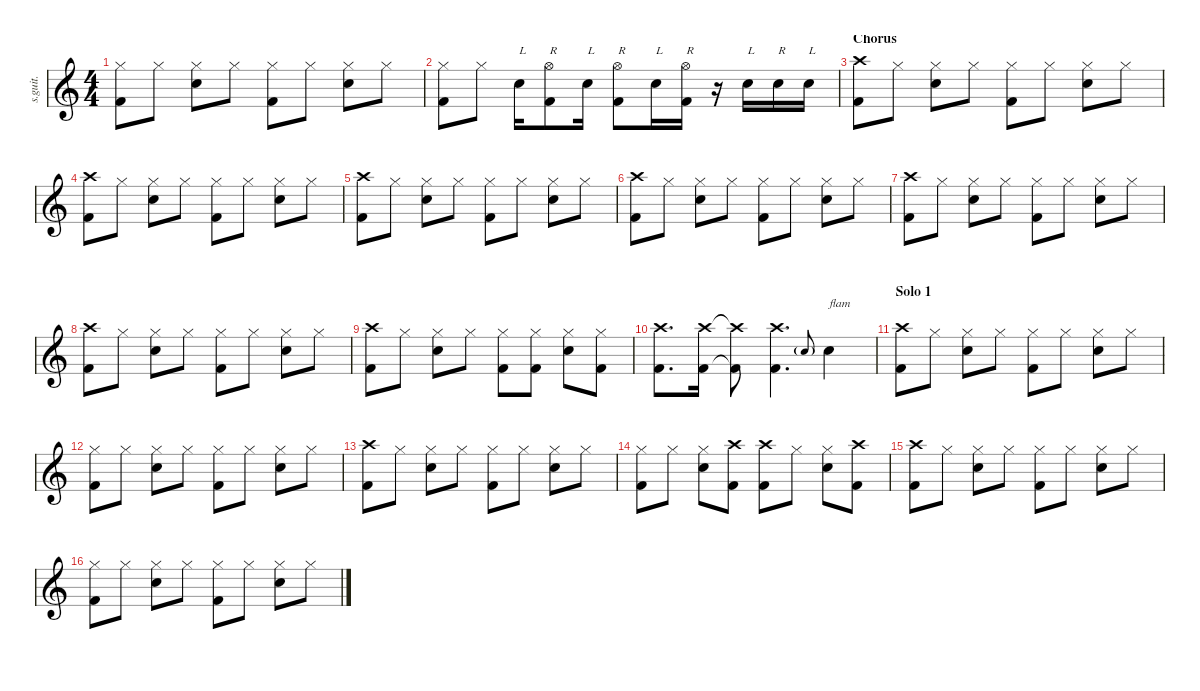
\defaultSystemsLayout 4
\hideDynamics
\bracketExtendMode nobrackets
\track ("Phil Rudd - Drums" "s.guit.") {instrument percussion}
\staff {score}
\articulation defaults
\ts (4 4)
\tempo (93 hide)
\clef g2
\ks c
("Hi-Hat (closed)" "Kick (hit) 2").8{lyrics (0 "") lyrics (1 "") lyrics (2 "") lyrics (3 "") lyrics (4 "") dy f} "Hi-Hat (closed)".8{lyrics (0 "") lyrics (1 "") lyrics (2 "") lyrics (3 "") lyrics (4 "")} ("Hi-Hat (closed)" "Snare (hit) 2").8{lyrics (0 "") lyrics (1 "") lyrics (2 "") lyrics (3 "") lyrics (4 "")} "Hi-Hat (closed)".8{lyrics (0 "") lyrics (1 "") lyrics (2 "") lyrics (3 "") lyrics (4 "")} ("Hi-Hat (closed)" "Kick (hit) 2").8{lyrics (0 "") lyrics (1 "") lyrics (2 "") lyrics (3 "") lyrics (4 "")} "Hi-Hat (closed)".8{lyrics (0 "") lyrics (1 "") lyrics (2 "") lyrics (3 "") lyrics (4 "")} ("Hi-Hat (closed)" "Snare (hit) 2").8{lyrics (0 "") lyrics (1 "") lyrics (2 "") lyrics (3 "") lyrics (4 "")} "Hi-Hat (closed)".8{lyrics (0 "") lyrics (1 "") lyrics (2 "") lyrics (3 "") lyrics (4 "")} |
("Hi-Hat (closed)" "Kick (hit) 2").8{lyrics (0 "") lyrics (1 "") lyrics (2 "") lyrics (3 "") lyrics (4 "")} "Hi-Hat (closed)".8{lyrics (0 "") lyrics (1 "") lyrics (2 "") lyrics (3 "") lyrics (4 "")} "Snare (hit) 2".16{txt "L" lyrics (0 "") lyrics (1 "") lyrics (2 "") lyrics (3 "") lyrics (4 "")} ("Hi-Hat (open)" "Kick (hit) 2").8{txt "R" lyrics (0 "") lyrics (1 "") lyrics (2 "") lyrics (3 "") lyrics (4 "") dy p} "Snare (hit) 2".16{txt "L" lyrics (0 "") lyrics (1 "") lyrics (2 "") lyrics (3 "") lyrics (4 "") dy f} ("Hi-Hat (open)" "Kick (hit) 2").8{txt "R" lyrics (0 "") lyrics (1 "") lyrics (2 "") lyrics (3 "") lyrics (4 "") dy p} "Snare (hit) 2".16{txt "L" lyrics (0 "") lyrics (1 "") lyrics (2 "") lyrics (3 "") lyrics (4 "") dy f} ("Hi-Hat (open)" "Kick (hit) 2").16{txt "R" lyrics (0 "") lyrics (1 "") lyrics (2 "") lyrics (3 "") lyrics (4 "") dy p} r.16 "Snare (hit) 2".16{txt "L" lyrics (0 "") lyrics (1 "") lyrics (2 "") lyrics (3 "") lyrics (4 "") dy f} "Snare (hit) 2".16{txt "R" lyrics (0 "") lyrics (1 "") lyrics (2 "") lyrics (3 "") lyrics (4 "")} "Snare (hit) 2".16{txt "L" lyrics (0 "") lyrics (1 "") lyrics (2 "") lyrics (3 "") lyrics (4 "")} |
\section ("" "Chorus")
\tempo (95 hide)
("Crash high (hit)" "Kick (hit) 2").8{lyrics (0 "") lyrics (1 "") lyrics (2 "") lyrics (3 "") lyrics (4 "")} "Hi-Hat (closed)".8{lyrics (0 "") lyrics (1 "") lyrics (2 "") lyrics (3 "") lyrics (4 "")} ("Hi-Hat (closed)" "Snare (hit) 2").8{lyrics (0 "") lyrics (1 "") lyrics (2 "") lyrics (3 "") lyrics (4 "")} "Hi-Hat (closed)".8{lyrics (0 "") lyrics (1 "") lyrics (2 "") lyrics (3 "") lyrics (4 "")} ("Hi-Hat (closed)" "Kick (hit) 2").8{lyrics (0 "") lyrics (1 "") lyrics (2 "") lyrics (3 "") lyrics (4 "")} "Hi-Hat (closed)".8{lyrics (0 "") lyrics (1 "") lyrics (2 "") lyrics (3 "") lyrics (4 "")} ("Hi-Hat (closed)" "Snare (hit) 2").8{lyrics (0 "") lyrics (1 "") lyrics (2 "") lyrics (3 "") lyrics (4 "")} "Hi-Hat (closed)".8{lyrics (0 "") lyrics (1 "") lyrics (2 "") lyrics (3 "") lyrics (4 "")} |
("Crash high (hit)" "Kick (hit) 2").8{lyrics (0 "") lyrics (1 "") lyrics (2 "") lyrics (3 "") lyrics (4 "")} "Hi-Hat (closed)".8{lyrics (0 "") lyrics (1 "") lyrics (2 "") lyrics (3 "") lyrics (4 "")} ("Hi-Hat (closed)" "Snare (hit) 2").8{lyrics (0 "") lyrics (1 "") lyrics (2 "") lyrics (3 "") lyrics (4 "")} "Hi-Hat (closed)".8{lyrics (0 "") lyrics (1 "") lyrics (2 "") lyrics (3 "") lyrics (4 "")} ("Hi-Hat (closed)" "Kick (hit) 2").8{lyrics (0 "") lyrics (1 "") lyrics (2 "") lyrics (3 "") lyrics (4 "")} "Hi-Hat (closed)".8{lyrics (0 "") lyrics (1 "") lyrics (2 "") lyrics (3 "") lyrics (4 "")} ("Hi-Hat (closed)" "Snare (hit) 2").8{lyrics (0 "") lyrics (1 "") lyrics (2 "") lyrics (3 "") lyrics (4 "")} "Hi-Hat (closed)".8{lyrics (0 "") lyrics (1 "") lyrics (2 "") lyrics (3 "") lyrics (4 "")} |
("Crash high (hit)" "Kick (hit) 2").8{lyrics (0 "") lyrics (1 "") lyrics (2 "") lyrics (3 "") lyrics (4 "")} "Hi-Hat (closed)".8{lyrics (0 "") lyrics (1 "") lyrics (2 "") lyrics (3 "") lyrics (4 "")} ("Hi-Hat (closed)" "Snare (hit) 2").8{lyrics (0 "") lyrics (1 "") lyrics (2 "") lyrics (3 "") lyrics (4 "")} "Hi-Hat (closed)".8{lyrics (0 "") lyrics (1 "") lyrics (2 "") lyrics (3 "") lyrics (4 "")} ("Hi-Hat (closed)" "Kick (hit) 2").8{lyrics (0 "") lyrics (1 "") lyrics (2 "") lyrics (3 "") lyrics (4 "")} "Hi-Hat (closed)".8{lyrics (0 "") lyrics (1 "") lyrics (2 "") lyrics (3 "") lyrics (4 "")} ("Hi-Hat (closed)" "Snare (hit) 2").8{lyrics (0 "") lyrics (1 "") lyrics (2 "") lyrics (3 "") lyrics (4 "")} "Hi-Hat (closed)".8{lyrics (0 "") lyrics (1 "") lyrics (2 "") lyrics (3 "") lyrics (4 "")} |
("Crash high (hit)" "Kick (hit) 2").8{lyrics (0 "") lyrics (1 "") lyrics (2 "") lyrics (3 "") lyrics (4 "")} "Hi-Hat (closed)".8{lyrics (0 "") lyrics (1 "") lyrics (2 "") lyrics (3 "") lyrics (4 "")} ("Hi-Hat (closed)" "Snare (hit) 2").8{lyrics (0 "") lyrics (1 "") lyrics (2 "") lyrics (3 "") lyrics (4 "")} "Hi-Hat (closed)".8{lyrics (0 "") lyrics (1 "") lyrics (2 "") lyrics (3 "") lyrics (4 "")} ("Hi-Hat (closed)" "Kick (hit) 2").8{lyrics (0 "") lyrics (1 "") lyrics (2 "") lyrics (3 "") lyrics (4 "")} "Hi-Hat (closed)".8{lyrics (0 "") lyrics (1 "") lyrics (2 "") lyrics (3 "") lyrics (4 "")} ("Hi-Hat (closed)" "Snare (hit) 2").8{lyrics (0 "") lyrics (1 "") lyrics (2 "") lyrics (3 "") lyrics (4 "")} "Hi-Hat (closed)".8{lyrics (0 "") lyrics (1 "") lyrics (2 "") lyrics (3 "") lyrics (4 "")} |
\tempo (97 hide)
("Crash high (hit)" "Kick (hit) 2").8{lyrics (0 "") lyrics (1 "") lyrics (2 "") lyrics (3 "") lyrics (4 "")} "Hi-Hat (closed)".8{lyrics (0 "") lyrics (1 "") lyrics (2 "") lyrics (3 "") lyrics (4 "")} ("Hi-Hat (closed)" "Snare (hit) 2").8{lyrics (0 "") lyrics (1 "") lyrics (2 "") lyrics (3 "") lyrics (4 "")} "Hi-Hat (closed)".8{lyrics (0 "") lyrics (1 "") lyrics (2 "") lyrics (3 "") lyrics (4 "")} ("Hi-Hat (closed)" "Kick (hit) 2").8{lyrics (0 "") lyrics (1 "") lyrics (2 "") lyrics (3 "") lyrics (4 "")} "Hi-Hat (closed)".8{lyrics (0 "") lyrics (1 "") lyrics (2 "") lyrics (3 "") lyrics (4 "")} ("Hi-Hat (closed)" "Snare (hit) 2").8{lyrics (0 "") lyrics (1 "") lyrics (2 "") lyrics (3 "") lyrics (4 "")} "Hi-Hat (closed)".8{lyrics (0 "") lyrics (1 "") lyrics (2 "") lyrics (3 "") lyrics (4 "")} |
("Crash high (hit)" "Kick (hit) 2").8{lyrics (0 "") lyrics (1 "") lyrics (2 "") lyrics (3 "") lyrics (4 "")} "Hi-Hat (closed)".8{lyrics (0 "") lyrics (1 "") lyrics (2 "") lyrics (3 "") lyrics (4 "")} ("Hi-Hat (closed)" "Snare (hit) 2").8{lyrics (0 "") lyrics (1 "") lyrics (2 "") lyrics (3 "") lyrics (4 "")} "Hi-Hat (closed)".8{lyrics (0 "") lyrics (1 "") lyrics (2 "") lyrics (3 "") lyrics (4 "")} ("Hi-Hat (closed)" "Kick (hit) 2").8{lyrics (0 "") lyrics (1 "") lyrics (2 "") lyrics (3 "") lyrics (4 "")} "Hi-Hat (closed)".8{lyrics (0 "") lyrics (1 "") lyrics (2 "") lyrics (3 "") lyrics (4 "")} ("Hi-Hat (closed)" "Snare (hit) 2").8{lyrics (0 "") lyrics (1 "") lyrics (2 "") lyrics (3 "") lyrics (4 "")} "Hi-Hat (closed)".8{lyrics (0 "") lyrics (1 "") lyrics (2 "") lyrics (3 "") lyrics (4 "")} |
("Crash high (hit)" "Kick (hit) 2").8{lyrics (0 "") lyrics (1 "") lyrics (2 "") lyrics (3 "") lyrics (4 "")} "Hi-Hat (closed)".8{lyrics (0 "") lyrics (1 "") lyrics (2 "") lyrics (3 "") lyrics (4 "")} ("Hi-Hat (closed)" "Snare (hit) 2").8{lyrics (0 "") lyrics (1 "") lyrics (2 "") lyrics (3 "") lyrics (4 "")} "Hi-Hat (closed)".8{lyrics (0 "") lyrics (1 "") lyrics (2 "") lyrics (3 "") lyrics (4 "")} ("Hi-Hat (closed)" "Kick (hit) 2").8{lyrics (0 "") lyrics (1 "") lyrics (2 "") lyrics (3 "") lyrics (4 "")} ("Hi-Hat (closed)" "Kick (hit) 2").8{lyrics (0 "") lyrics (1 "") lyrics (2 "") lyrics (3 "") lyrics (4 "")} ("Hi-Hat (closed)" "Snare (hit) 2").8{lyrics (0 "") lyrics (1 "") lyrics (2 "") lyrics (3 "") lyrics (4 "")} ("Hi-Hat (closed)" "Kick (hit) 2").8{lyrics (0 "") lyrics (1 "") lyrics (2 "") lyrics (3 "") lyrics (4 "")} |
("Crash high (hit)" "Kick (hit) 2").8{d lyrics (0 "") lyrics (1 "") lyrics (2 "") lyrics (3 "") lyrics (4 "")} ("Crash high (hit)" "Kick (hit) 2").16{lyrics (0 "") lyrics (1 "") lyrics (2 "") lyrics (3 "") lyrics (4 "")} ("Crash high (hit)"{t} "Kick (hit) 2"{t}).8{lyrics (0 "") lyrics (1 "") lyrics (2 "") lyrics (3 "") lyrics (4 "")} ("Crash high (hit)" "Kick (hit) 2").4{d lyrics (0 "") lyrics (1 "") lyrics (2 "") lyrics (3 "") lyrics (4 "")} "Snare (hit) 2"{g}.8{lyrics (0 "") lyrics (1 "") lyrics (2 "") lyrics (3 "") lyrics (4 "") gr onbeat} "Snare (hit) 2".4{txt "flam" lyrics (0 "") lyrics (1 "") lyrics (2 "") lyrics (3 "") lyrics (4 "")} |
\section ("" "Solo 1")
\tempo (95 hide)
("Crash high (hit)" "Kick (hit) 2").8{lyrics (0 "") lyrics (1 "") lyrics (2 "") lyrics (3 "") lyrics (4 "")} "Hi-Hat (closed)".8{lyrics (0 "") lyrics (1 "") lyrics (2 "") lyrics (3 "") lyrics (4 "")} ("Hi-Hat (closed)" "Snare (hit) 2").8{lyrics (0 "") lyrics (1 "") lyrics (2 "") lyrics (3 "") lyrics (4 "")} "Hi-Hat (closed)".8{lyrics (0 "") lyrics (1 "") lyrics (2 "") lyrics (3 "") lyrics (4 "")} ("Hi-Hat (closed)" "Kick (hit) 2").8{lyrics (0 "") lyrics (1 "") lyrics (2 "") lyrics (3 "") lyrics (4 "")} "Hi-Hat (closed)".8{lyrics (0 "") lyrics (1 "") lyrics (2 "") lyrics (3 "") lyrics (4 "")} ("Hi-Hat (closed)" "Snare (hit) 2").8{lyrics (0 "") lyrics (1 "") lyrics (2 "") lyrics (3 "") lyrics (4 "")} "Hi-Hat (closed)".8{lyrics (0 "") lyrics (1 "") lyrics (2 "") lyrics (3 "") lyrics (4 "")} |
("Hi-Hat (closed)" "Kick (hit) 2").8{lyrics (0 "") lyrics (1 "") lyrics (2 "") lyrics (3 "") lyrics (4 "")} "Hi-Hat (closed)".8{lyrics (0 "") lyrics (1 "") lyrics (2 "") lyrics (3 "") lyrics (4 "")} ("Hi-Hat (closed)" "Snare (hit) 2").8{lyrics (0 "") lyrics (1 "") lyrics (2 "") lyrics (3 "") lyrics (4 "")} "Hi-Hat (closed)".8{lyrics (0 "") lyrics (1 "") lyrics (2 "") lyrics (3 "") lyrics (4 "")} ("Hi-Hat (closed)" "Kick (hit) 2").8{lyrics (0 "") lyrics (1 "") lyrics (2 "") lyrics (3 "") lyrics (4 "")} "Hi-Hat (closed)".8{lyrics (0 "") lyrics (1 "") lyrics (2 "") lyrics (3 "") lyrics (4 "")} ("Hi-Hat (closed)" "Snare (hit) 2").8{lyrics (0 "") lyrics (1 "") lyrics (2 "") lyrics (3 "") lyrics (4 "")} "Hi-Hat (closed)".8{lyrics (0 "") lyrics (1 "") lyrics (2 "") lyrics (3 "") lyrics (4 "")} |
("Crash high (hit)" "Kick (hit) 2").8{lyrics (0 "") lyrics (1 "") lyrics (2 "") lyrics (3 "") lyrics (4 "")} "Hi-Hat (closed)".8{lyrics (0 "") lyrics (1 "") lyrics (2 "") lyrics (3 "") lyrics (4 "")} ("Hi-Hat (closed)" "Snare (hit) 2").8{lyrics (0 "") lyrics (1 "") lyrics (2 "") lyrics (3 "") lyrics (4 "")} "Hi-Hat (closed)".8{lyrics (0 "") lyrics (1 "") lyrics (2 "") lyrics (3 "") lyrics (4 "")} ("Hi-Hat (closed)" "Kick (hit) 2").8{lyrics (0 "") lyrics (1 "") lyrics (2 "") lyrics (3 "") lyrics (4 "")} "Hi-Hat (closed)".8{lyrics (0 "") lyrics (1 "") lyrics (2 "") lyrics (3 "") lyrics (4 "")} ("Hi-Hat (closed)" "Snare (hit) 2").8{lyrics (0 "") lyrics (1 "") lyrics (2 "") lyrics (3 "") lyrics (4 "")} "Hi-Hat (closed)".8{lyrics (0 "") lyrics (1 "") lyrics (2 "") lyrics (3 "") lyrics (4 "")} |
("Hi-Hat (closed)" "Kick (hit) 2").8{lyrics (0 "") lyrics (1 "") lyrics (2 "") lyrics (3 "") lyrics (4 "")} "Hi-Hat (closed)".8{lyrics (0 "") lyrics (1 "") lyrics (2 "") lyrics (3 "") lyrics (4 "")} ("Hi-Hat (closed)" "Snare (hit) 2").8{lyrics (0 "") lyrics (1 "") lyrics (2 "") lyrics (3 "") lyrics (4 "")} ("Crash high (hit)" "Kick (hit) 2").8{lyrics (0 "") lyrics (1 "") lyrics (2 "") lyrics (3 "") lyrics (4 "")} ("Crash high (hit)" "Kick (hit) 2").8{lyrics (0 "") lyrics (1 "") lyrics (2 "") lyrics (3 "") lyrics (4 "")} "Hi-Hat (closed)".8{lyrics (0 "") lyrics (1 "") lyrics (2 "") lyrics (3 "") lyrics (4 "")} ("Hi-Hat (closed)" "Snare (hit) 2").8{lyrics (0 "") lyrics (1 "") lyrics (2 "") lyrics (3 "") lyrics (4 "")} ("Crash high (hit)" "Kick (hit) 2").8{lyrics (0 "") lyrics (1 "") lyrics (2 "") lyrics (3 "") lyrics (4 "")} |
("Crash high (hit)" "Kick (hit) 2").8{lyrics (0 "") lyrics (1 "") lyrics (2 "") lyrics (3 "") lyrics (4 "")} "Hi-Hat (closed)".8{lyrics (0 "") lyrics (1 "") lyrics (2 "") lyrics (3 "") lyrics (4 "")} ("Hi-Hat (closed)" "Snare (hit) 2").8{lyrics (0 "") lyrics (1 "") lyrics (2 "") lyrics (3 "") lyrics (4 "")} "Hi-Hat (closed)".8{lyrics (0 "") lyrics (1 "") lyrics (2 "") lyrics (3 "") lyrics (4 "")} ("Hi-Hat (closed)" "Kick (hit) 2").8{lyrics (0 "") lyrics (1 "") lyrics (2 "") lyrics (3 "") lyrics (4 "")} "Hi-Hat (closed)".8{lyrics (0 "") lyrics (1 "") lyrics (2 "") lyrics (3 "") lyrics (4 "")} ("Hi-Hat (closed)" "Snare (hit) 2").8{lyrics (0 "") lyrics (1 "") lyrics (2 "") lyrics (3 "") lyrics (4 "")} "Hi-Hat (closed)".8{lyrics (0 "") lyrics (1 "") lyrics (2 "") lyrics (3 "") lyrics (4 "")} |
("Hi-Hat (closed)" "Kick (hit) 2").8{lyrics (0 "") lyrics (1 "") lyrics (2 "") lyrics (3 "") lyrics (4 "")} "Hi-Hat (closed)".8{lyrics (0 "") lyrics (1 "") lyrics (2 "") lyrics (3 "") lyrics (4 "")} ("Hi-Hat (closed)" "Snare (hit) 2").8{lyrics (0 "") lyrics (1 "") lyrics (2 "") lyrics (3 "") lyrics (4 "")} "Hi-Hat (closed)".8{lyrics (0 "") lyrics (1 "") lyrics (2 "") lyrics (3 "") lyrics (4 "")} ("Hi-Hat (closed)" "Kick (hit) 2").8{lyrics (0 "") lyrics (1 "") lyrics (2 "") lyrics (3 "") lyrics (4 "")} "Hi-Hat (closed)".8{lyrics (0 "") lyrics (1 "") lyrics (2 "") lyrics (3 "") lyrics (4 "")} ("Hi-Hat (closed)" "Snare (hit) 2").8{lyrics (0 "") lyrics (1 "") lyrics (2 "") lyrics (3 "") lyrics (4 "")} "Hi-Hat (closed)".8{lyrics (0 "") lyrics (1 "") lyrics (2 "") lyrics (3 "") lyrics (4 "")}
